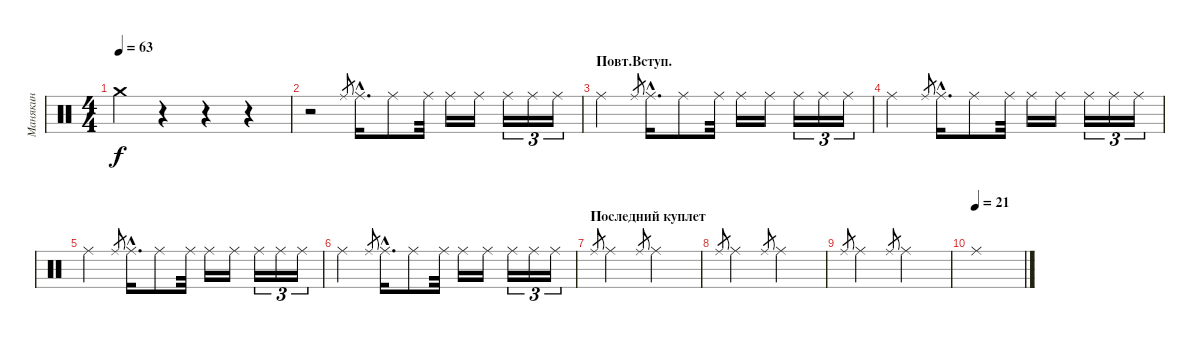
\track ("Манякин" "Манякин") {instrument percussion}
\staff {score}
\articulation defaults
\ts (4 4)
\tempo 63
\clef neutral
\ks c "Crash medium (hit)".4{dy f}
r.4 r.4 r.4 |
r.2{volume 9} "Ride (middle)".8{gr} "Ride (middle)"{hac}.16{d} "Ride (middle)".8 "Ride (middle)".32 "Ride (middle)".16 "Ride (middle)".16 "Ride (middle)".16{tu (3 2)} "Ride (middle)".16{tu (3 2)} "Ride (middle)".16{tu (3 2)} |
\section ("" "Повт.Вступ.")
"Ride (middle)".2 "Ride (middle)".8{gr} "Ride (middle)"{hac}.16{d} "Ride (middle)".8 "Ride (middle)".32 "Ride (middle)".16 "Ride (middle)".16 "Ride (middle)".16{tu (3 2)} "Ride (middle)".16{tu (3 2)} "Ride (middle)".16{tu (3 2)} |
"Ride (middle)".2 "Ride (middle)".8{gr} "Ride (middle)"{hac}.16{d} "Ride (middle)".8 "Ride (middle)".32 "Ride (middle)".16 "Ride (middle)".16 "Ride (middle)".16{tu (3 2)} "Ride (middle)".16{tu (3 2)} "Ride (middle)".16{tu (3 2)} |
"Ride (middle)".2 "Ride (middle)".8{gr} "Ride (middle)"{hac}.16{d} "Ride (middle)".8 "Ride (middle)".32 "Ride (middle)".16 "Ride (middle)".16 "Ride (middle)".16{tu (3 2)} "Ride (middle)".16{tu (3 2)} "Ride (middle)".16{tu (3 2)} |
"Ride (middle)".2 "Ride (middle)".8{gr} "Ride (middle)"{hac}.16{d} "Ride (middle)".8 "Ride (middle)".32 "Ride (middle)".16 "Ride (middle)".16 "Ride (middle)".16{tu (3 2)} "Ride (middle)".16{tu (3 2)} "Ride (middle)".16{tu (3 2)} |
\section ("" "Последний куплет")
"Ride (middle)".8{gr} "Ride (middle)".2 "Ride (middle)".8{gr} "Ride (middle)".2 |
"Ride (middle)".8{gr} "Ride (middle)".2 "Ride (middle)".8{gr} "Ride (middle)".2 |
"Ride (middle)".8{gr} "Ride (middle)".2 "Ride (middle)".8{gr} "Ride (middle)".2 |
\tempo (21)
"Ride (middle)".1
